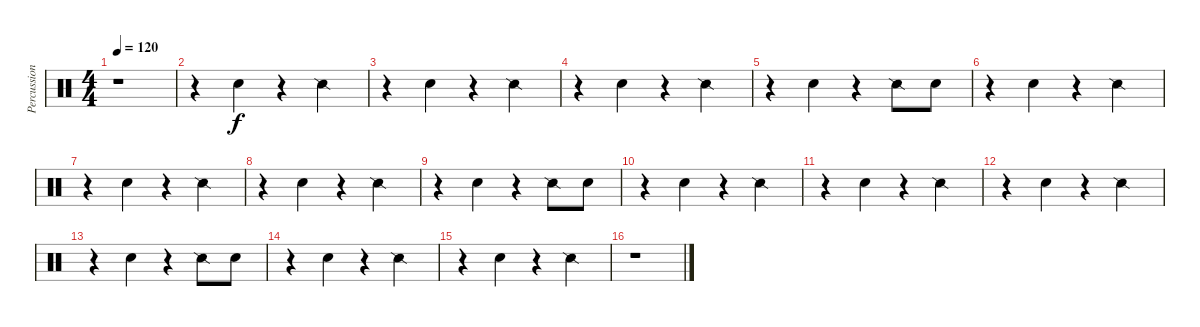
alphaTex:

\track ("Percussions" "Percussion") {instrument percussion}
\staff {score}
\articulation defaults
\ts (4 4)
\tempo 120
\clef neutral
\ks c
r.1{dy f} |
r.4 "Hand Clap (hit)".4 r.4 "Snare (side stick) 2".4 |
r.4 "Hand Clap (hit)".4 r.4 "Snare (side stick) 2".4 |
r.4 "Hand Clap (hit)".4 r.4 "Snare (side stick) 2".4 |
r.4 "Hand Clap (hit)".4 r.4 "Snare (side stick) 2".8 "Hand Clap (hit)".8 |
r.4 "Hand Clap (hit)".4 r.4 "Snare (side stick) 2".4 |
r.4 "Hand Clap (hit)".4 r.4 "Snare (side stick) 2".4 |
r.4 "Hand Clap (hit)".4 r.4 "Snare (side stick) 2".4 |
r.4 "Hand Clap (hit)".4 r.4 "Snare (side stick) 2".8 "Hand Clap (hit)".8 |
r.4 "Hand Clap (hit)".4 r.4 "Snare (side stick) 2".4 |
r.4 "Hand Clap (hit)".4 r.4 "Snare (side stick) 2".4 |
r.4 "Hand Clap (hit)".4 r.4 "Snare (side stick) 2".4 |
r.4 "Hand Clap (hit)".4 r.4 "Snare (side stick) 2".8 "Hand Clap (hit)".8 |
r.4 "Hand Clap (hit)".4 r.4 "Snare (side stick) 2".4 |
r.4 "Hand Clap (hit)".4 r.4 "Snare (side stick) 2".4 |
r.1
